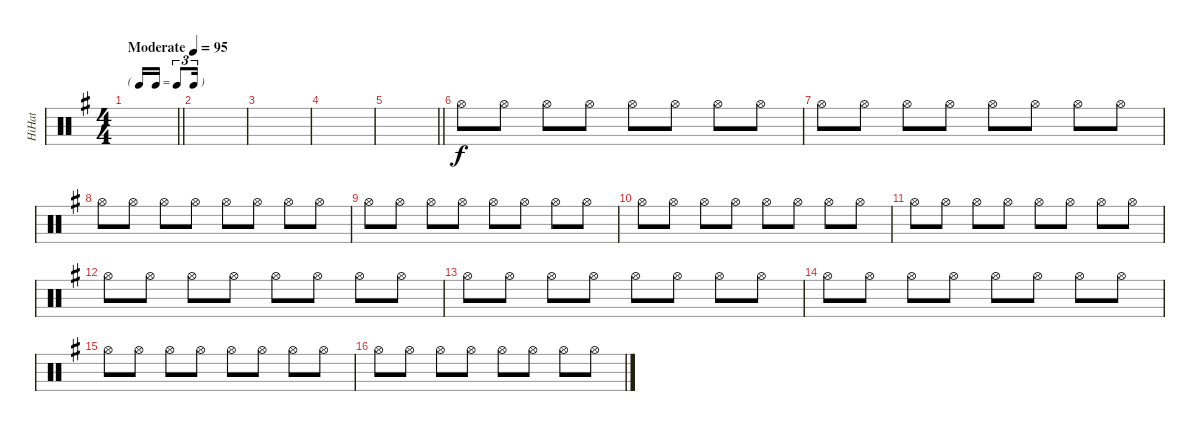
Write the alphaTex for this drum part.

\track ("HiHat" "HiHat") {instrument percussion}
\staff {score}
\articulation defaults
\ts (4 4)
\tf triplet16th
\tempo (95 "Moderate")
\clef neutral
\barLineRight lightlight
\ks eminor
|
|
|
|
\barLineRight lightlight
|
"Hi-Hat (open)".8 "Hi-Hat (open)".8 "Hi-Hat (open)".8 "Hi-Hat (open)".8 "Hi-Hat (open)".8 "Hi-Hat (open)".8 "Hi-Hat (open)".8 "Hi-Hat (open)".8 |
"Hi-Hat (open)".8 "Hi-Hat (open)".8 "Hi-Hat (open)".8 "Hi-Hat (open)".8 "Hi-Hat (open)".8 "Hi-Hat (open)".8 "Hi-Hat (open)".8 "Hi-Hat (open)".8 |
"Hi-Hat (open)".8 "Hi-Hat (open)".8 "Hi-Hat (open)".8 "Hi-Hat (open)".8 "Hi-Hat (open)".8 "Hi-Hat (open)".8 "Hi-Hat (open)".8 "Hi-Hat (open)".8 |
"Hi-Hat (open)".8 "Hi-Hat (open)".8 "Hi-Hat (open)".8 "Hi-Hat (open)".8 "Hi-Hat (open)".8 "Hi-Hat (open)".8 "Hi-Hat (open)".8 "Hi-Hat (open)".8 |
"Hi-Hat (open)".8 "Hi-Hat (open)".8 "Hi-Hat (open)".8 "Hi-Hat (open)".8 "Hi-Hat (open)".8 "Hi-Hat (open)".8 "Hi-Hat (open)".8 "Hi-Hat (open)".8 |
"Hi-Hat (open)".8 "Hi-Hat (open)".8 "Hi-Hat (open)".8 "Hi-Hat (open)".8 "Hi-Hat (open)".8 "Hi-Hat (open)".8 "Hi-Hat (open)".8 "Hi-Hat (open)".8 |
"Hi-Hat (open)".8 "Hi-Hat (open)".8 "Hi-Hat (open)".8 "Hi-Hat (open)".8 "Hi-Hat (open)".8 "Hi-Hat (open)".8 "Hi-Hat (open)".8 "Hi-Hat (open)".8 |
"Hi-Hat (open)".8 "Hi-Hat (open)".8 "Hi-Hat (open)".8 "Hi-Hat (open)".8 "Hi-Hat (open)".8 "Hi-Hat (open)".8 "Hi-Hat (open)".8 "Hi-Hat (open)".8 |
"Hi-Hat (open)".8 "Hi-Hat (open)".8 "Hi-Hat (open)".8 "Hi-Hat (open)".8 "Hi-Hat (open)".8 "Hi-Hat (open)".8 "Hi-Hat (open)".8 "Hi-Hat (open)".8 |
"Hi-Hat (open)".8 "Hi-Hat (open)".8 "Hi-Hat (open)".8 "Hi-Hat (open)".8 "Hi-Hat (open)".8 "Hi-Hat (open)".8 "Hi-Hat (open)".8 "Hi-Hat (open)".8 |
"Hi-Hat (open)".8 "Hi-Hat (open)".8 "Hi-Hat (open)".8 "Hi-Hat (open)".8 "Hi-Hat (open)".8 "Hi-Hat (open)".8 "Hi-Hat (open)".8 "Hi-Hat (open)".8
